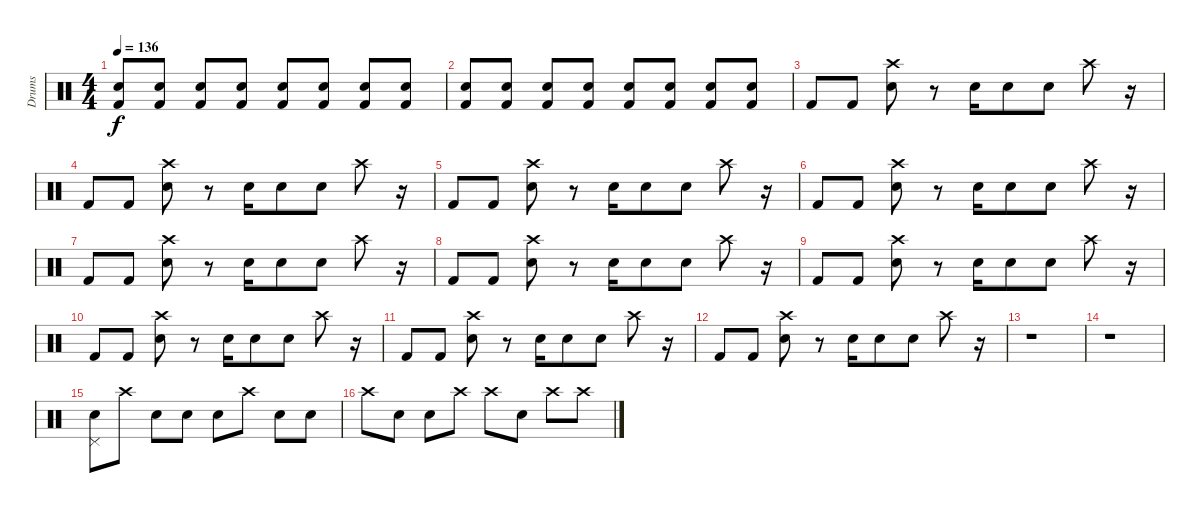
\track ("Drums" "Drums") {instrument percussion}
\staff {score}
\articulation defaults
\ts (4 4)
\tempo 136
\clef neutral
\ks c
("Snare (hit) 2" "Kick (hit) 2").8{dy f volume 16} ("Snare (hit) 2" "Kick (hit) 2").8 ("Snare (hit) 2" "Kick (hit) 2").8 ("Snare (hit) 2" "Kick (hit) 2").8 ("Snare (hit) 2" "Kick (hit) 2").8 ("Snare (hit) 2" "Kick (hit) 2").8 ("Snare (hit) 2" "Kick (hit) 2").8 ("Snare (hit) 2" "Kick (hit) 2").8 |
("Snare (hit) 2" "Kick (hit) 2").8{volume 16} ("Snare (hit) 2" "Kick (hit) 2").8 ("Snare (hit) 2" "Kick (hit) 2").8 ("Snare (hit) 2" "Kick (hit) 2").8 ("Snare (hit) 2" "Kick (hit) 2").8 ("Snare (hit) 2" "Kick (hit) 2").8 ("Snare (hit) 2" "Kick (hit) 2").8 ("Snare (hit) 2" "Kick (hit) 2").8 |
"Kick (hit) 2".8 "Kick (hit) 2".8 ("Crash high (hit)" "Snare (hit) 2").8 r.8 "Snare (hit) 2".16 "Snare (hit) 2".8 "Snare (hit) 2".8 "Crash high (hit)".8 r.16 |
"Kick (hit) 2".8 "Kick (hit) 2".8 ("Crash high (hit)" "Snare (hit) 2").8 r.8 "Snare (hit) 2".16 "Snare (hit) 2".8 "Snare (hit) 2".8 "Crash high (hit)".8 r.16 |
"Kick (hit) 2".8 "Kick (hit) 2".8 ("Crash high (hit)" "Snare (hit) 2").8 r.8 "Snare (hit) 2".16 "Snare (hit) 2".8 "Snare (hit) 2".8 "Crash high (hit)".8 r.16 |
"Kick (hit) 2".8 "Kick (hit) 2".8 ("Crash high (hit)" "Snare (hit) 2").8 r.8 "Snare (hit) 2".16 "Snare (hit) 2".8 "Snare (hit) 2".8 "Crash high (hit)".8 r.16 |
"Kick (hit) 2".8 "Kick (hit) 2".8 ("Crash high (hit)" "Snare (hit) 2").8 r.8 "Snare (hit) 2".16 "Snare (hit) 2".8 "Snare (hit) 2".8 "Crash high (hit)".8 r.16 |
"Kick (hit) 2".8 "Kick (hit) 2".8 ("Crash high (hit)" "Snare (hit) 2").8 r.8 "Snare (hit) 2".16 "Snare (hit) 2".8 "Snare (hit) 2".8 "Crash high (hit)".8 r.16 |
"Kick (hit) 2".8 "Kick (hit) 2".8 ("Crash high (hit)" "Snare (hit) 2").8 r.8 "Snare (hit) 2".16 "Snare (hit) 2".8 "Snare (hit) 2".8 "Crash high (hit)".8 r.16 |
"Kick (hit) 2".8 "Kick (hit) 2".8 ("Crash high (hit)" "Snare (hit) 2").8 r.8 "Snare (hit) 2".16 "Snare (hit) 2".8 "Snare (hit) 2".8 "Crash high (hit)".8 r.16 |
"Kick (hit) 2".8 "Kick (hit) 2".8 ("Crash high (hit)" "Snare (hit) 2").8 r.8 "Snare (hit) 2".16 "Snare (hit) 2".8 "Snare (hit) 2".8 "Crash high (hit)".8 r.16 |
"Kick (hit) 2".8 "Kick (hit) 2".8 ("Crash high (hit)" "Snare (hit) 2").8 r.8 "Snare (hit) 2".16 "Snare (hit) 2".8 "Snare (hit) 2".8 "Crash high (hit)".8 r.16 |
r.1 |
r.1 |
("Snare (hit) 2" "Pedal Hi-Hat (hit)").8 "Crash high (hit)".8 "Electric Snare (hit)".8 "Snare (hit) 2".8 "Snare (hit) 2".8 "Crash high (hit)".8 "Electric Snare (hit)".8 "Snare (hit) 2".8 |
"Crash high (hit)".8 "Electric Snare (hit)".8 "Snare (hit) 2".8 "Crash high (hit)".8 "Crash high (hit)".8 "Snare (hit) 2".8 "Crash high (hit)".8 "Crash high (hit)".8
